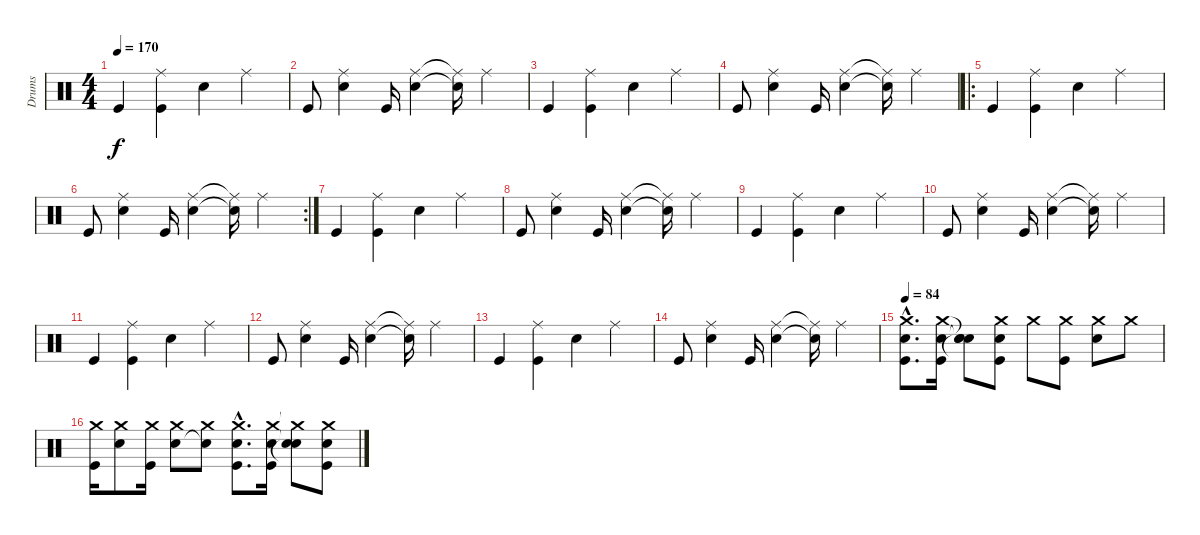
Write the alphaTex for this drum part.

\track ("Drums" "Drums") {instrument percussion}
\staff {score}
\articulation defaults
\ts (4 4)
\tempo 170
\clef neutral
\ks c "Kick (hit)".4{dy f}
("Ride (middle)" "Kick (hit)").4 "Electric Snare (hit)".4 "Ride (middle)".4 |
"Kick (hit)".8 ("Ride (middle)" "Electric Snare (hit)").4 "Kick (hit)".16 ("Ride (middle)" "Electric Snare (hit)").4 ("Ride (middle)"{t} "Snare (hit)"{t}).16 "Ride (middle)".4 |
"Kick (hit)".4 ("Ride (middle)" "Kick (hit)").4 "Electric Snare (hit)".4 "Ride (middle)".4 |
"Kick (hit)".8 ("Ride (middle)" "Electric Snare (hit)").4 "Kick (hit)".16 ("Ride (middle)" "Electric Snare (hit)").4 ("Ride (middle)"{t} "Snare (hit)"{t}).16 "Ride (middle)".4 |
\ro "Kick (hit)".4
("Ride (middle)" "Kick (hit)").4 "Electric Snare (hit)".4 "Ride (middle)".4 |
\rc 2 "Kick (hit)".8
("Ride (middle)" "Electric Snare (hit)").4 "Kick (hit)".16 ("Ride (middle)" "Electric Snare (hit)").4 ("Ride (middle)"{t} "Snare (hit)"{t}).16 "Ride (middle)".4 |
"Kick (hit)".4 ("Ride (middle)" "Kick (hit)").4 "Electric Snare (hit)".4 "Ride (middle)".4 |
"Kick (hit)".8 ("Ride (middle)" "Electric Snare (hit)").4 "Kick (hit)".16 ("Ride (middle)" "Electric Snare (hit)").4 ("Ride (middle)"{t} "Snare (hit)"{t}).16 "Ride (middle)".4 |
"Kick (hit)".4 ("Ride (middle)" "Kick (hit)").4 "Electric Snare (hit)".4 "Ride (middle)".4 |
"Kick (hit)".8 ("Ride (middle)" "Electric Snare (hit)").4 "Kick (hit)".16 ("Ride (middle)" "Electric Snare (hit)").4 ("Ride (middle)"{t} "Snare (hit)"{t}).16 "Ride (middle)".4 |
"Kick (hit)".4 ("Ride (middle)" "Kick (hit)").4 "Electric Snare (hit)".4 "Ride (middle)".4 |
"Kick (hit)".8 ("Ride (middle)" "Electric Snare (hit)").4 "Kick (hit)".16 ("Ride (middle)" "Electric Snare (hit)").4 ("Ride (middle)"{t} "Snare (hit)"{t}).16 "Ride (middle)".4 |
"Kick (hit)".4 ("Ride (middle)" "Kick (hit)").4 "Electric Snare (hit)".4 "Ride (middle)".4 |
"Kick (hit)".8 ("Ride (middle)" "Electric Snare (hit)").4 "Kick (hit)".16 ("Ride (middle)" "Electric Snare (hit)").4 ("Ride (middle)"{t} "Snare (hit)"{t}).16 "Ride (middle)".4 |
\tempo 84
("Crash medium (hit)"{hac} "Electric Snare (hit)"{hac} "Kick (hit)"{hac}).8{d} ("Crash medium (hit)" "Electric Snare (hit)" "Kick (hit)").16 ("Snare (hit)"{t} "Snare (hit)"{t} "Snare (hit)"{t}).8 ("Crash medium (hit)" "Electric Snare (hit)" "Kick (hit)").8 "Crash medium (hit)".8 ("Crash medium (hit)" "Kick (hit)").8 ("Crash medium (hit)" "Electric Snare (hit)").8 "Crash medium (hit)".8 |
("Crash medium (hit)" "Kick (hit)").16 ("Crash medium (hit)" "Electric Snare (hit)").8 ("Crash medium (hit)" "Kick (hit)").16 ("Crash medium (hit)" "Electric Snare (hit)").8 ("Crash medium (hit)" "Snare (hit)"{t}).8 ("Crash medium (hit)"{hac} "Electric Snare (hit)"{hac} "Kick (hit)"{hac}).8{d} ("Crash medium (hit)" "Electric Snare (hit)" "Kick (hit)").16 ("Crash medium (hit)"{t} "Snare (hit)"{t} "Snare (hit)"{t}).8 ("Crash medium (hit)" "Electric Snare (hit)" "Kick (hit)").8
